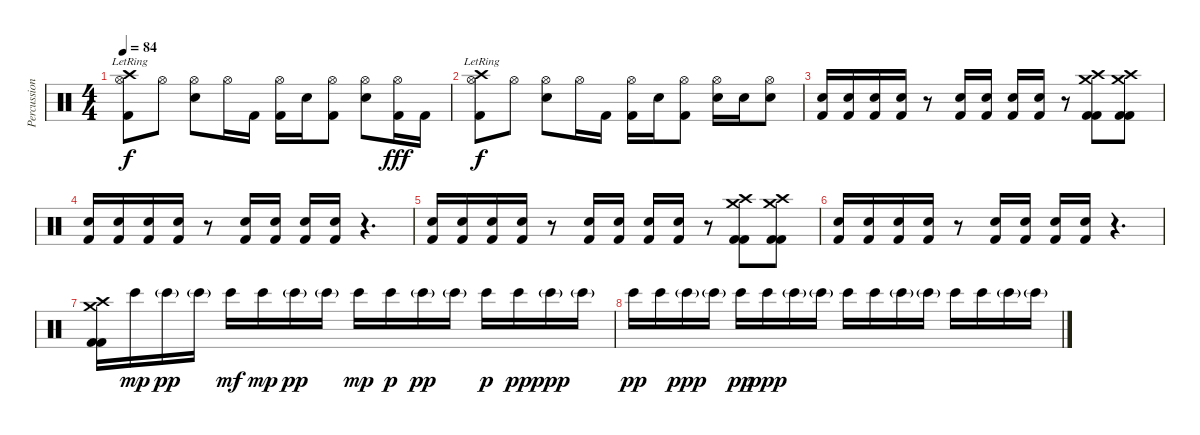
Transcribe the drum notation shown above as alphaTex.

\track ("Percussion" "Percussion") {instrument percussion}
\staff {score}
\articulation defaults
\ts (4 4)
\tempo 84
\clef neutral
\ks c
("Crash high (hit)"{lr} "Hi-Hat (open)" "Kick (hit) 2").8{dy f} "Hi-Hat (open)".8 ("Hi-Hat (open)" "Electric Snare (hit)").8 "Hi-Hat (open)".16 "Kick (hit) 2".16 ("Hi-Hat (open)" "Kick (hit) 2").16 "Electric Snare (hit)".16 ("Hi-Hat (open)" "Kick (hit) 2").8 ("Hi-Hat (open)" "Electric Snare (hit)").8 ("Hi-Hat (open)" "Kick (hit) 2").16{dy fff} "Kick (hit) 2".16 |
("Crash high (hit)"{lr} "Hi-Hat (open)" "Kick (hit) 2").8{dy f} "Hi-Hat (open)".8 ("Hi-Hat (open)" "Electric Snare (hit)").8 "Hi-Hat (open)".16 "Kick (hit) 2".16 ("Hi-Hat (open)" "Kick (hit) 2").16 "Electric Snare (hit)".16 ("Hi-Hat (open)" "Kick (hit) 2").8 ("Hi-Hat (open)" "Electric Snare (hit)").16 "Electric Snare (hit)".16 ("Hi-Hat (open)" "Electric Snare (hit)").8 |
("Electric Snare (hit)" "Kick (hit) 2").16 ("Electric Snare (hit)" "Kick (hit) 2").16 ("Electric Snare (hit)" "Kick (hit) 2").16 ("Electric Snare (hit)" "Kick (hit) 2").16 r.8 ("Electric Snare (hit)" "Kick (hit) 2").16 ("Electric Snare (hit)" "Kick (hit) 2").16 ("Electric Snare (hit)" "Kick (hit) 2").16 ("Electric Snare (hit)" "Kick (hit) 2").16 r.8 ("Crash medium (hit)" "Crash high (hit)" "Kick (hit) 2" "Kick (hit) 2").8 ("Crash medium (hit)" "Crash high (hit)" "Kick (hit) 2" "Kick (hit) 2").8 |
("Electric Snare (hit)" "Kick (hit) 2").16 ("Electric Snare (hit)" "Kick (hit) 2").16 ("Electric Snare (hit)" "Kick (hit) 2").16 ("Electric Snare (hit)" "Kick (hit) 2").16 r.8 ("Electric Snare (hit)" "Kick (hit) 2").16 ("Electric Snare (hit)" "Kick (hit) 2").16 ("Electric Snare (hit)" "Kick (hit) 2").16 ("Electric Snare (hit)" "Kick (hit) 2").16 r.4{d} |
("Electric Snare (hit)" "Kick (hit) 2").16 ("Electric Snare (hit)" "Kick (hit) 2").16 ("Electric Snare (hit)" "Kick (hit) 2").16 ("Electric Snare (hit)" "Kick (hit) 2").16 r.8 ("Electric Snare (hit)" "Kick (hit) 2").16 ("Electric Snare (hit)" "Kick (hit) 2").16 ("Electric Snare (hit)" "Kick (hit) 2").16 ("Electric Snare (hit)" "Kick (hit) 2").16 r.8 ("Crash medium (hit)" "Crash high (hit)" "Kick (hit) 2" "Kick (hit) 2").8 ("Crash medium (hit)" "Crash high (hit)" "Kick (hit) 2" "Kick (hit) 2").8 |
("Electric Snare (hit)" "Kick (hit) 2").16 ("Electric Snare (hit)" "Kick (hit) 2").16 ("Electric Snare (hit)" "Kick (hit) 2").16 ("Electric Snare (hit)" "Kick (hit) 2").16 r.8 ("Electric Snare (hit)" "Kick (hit) 2").16 ("Electric Snare (hit)" "Kick (hit) 2").16 ("Electric Snare (hit)" "Kick (hit) 2").16 ("Electric Snare (hit)" "Kick (hit) 2").16 r.4{d} |
("Crash medium (hit)" "Crash high (hit)" "Kick (hit) 2" "Kick (hit) 2").16 "Bongo High (hit)".16{dy mp} "Bongo High (hit)"{g}.16{dy pp} "Bongo High (hit)"{g}.16 "Bongo High (hit)".16{dy mf} "Bongo High (hit)".16{dy mp} "Bongo High (hit)"{g}.16{dy pp} "Bongo High (hit)"{g}.16 "Bongo High (hit)".16{dy mp} "Bongo High (hit)".16{dy p} "Bongo High (hit)"{g}.16{dy pp} "Bongo High (hit)"{g}.16 "Bongo High (hit)".16{dy p} "Bongo High (hit)".16{dy pp} "Bongo High (hit)"{g}.16{dy ppp} "Bongo High (hit)"{g}.16 |
"Bongo High (hit)".16{dy pp} "Bongo High (hit)".16 "Bongo High (hit)"{g}.16{dy ppp} "Bongo High (hit)"{g}.16 "Bongo High (hit)".16{dy pp} "Bongo High (hit)".16{dy ppp} "Bongo High (hit)"{g}.16 "Bongo High (hit)"{g}.16 "Bongo High (hit)".16 "Bongo High (hit)".16 "Bongo High (hit)"{g}.16 "Bongo High (hit)"{g}.16 "Bongo High (hit)".16 "Bongo High (hit)".16 "Bongo High (hit)"{g}.16 "Bongo High (hit)"{g}.16
